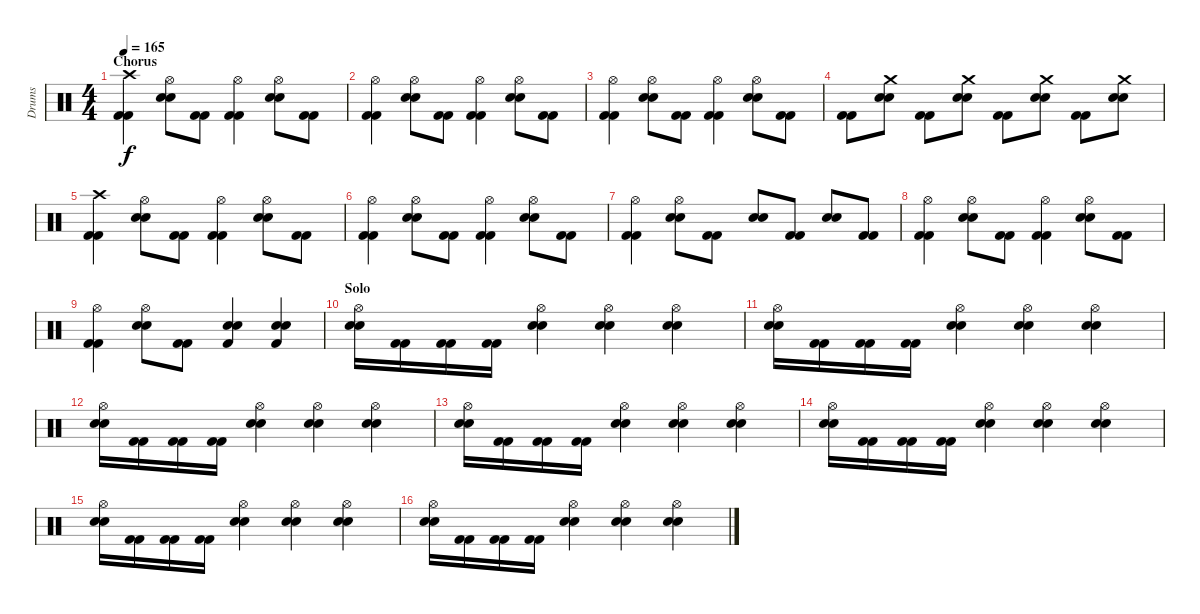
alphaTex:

\track ("Drums" "Drums") {instrument percussion}
\staff {score}
\articulation defaults
\ts (4 4)
\section ("" "Chorus")
\tempo 165
\clef neutral
\ks c
("Crash high (hit)" "Kick (hit) 2" "Kick (hit) 2").4{dy f} ("Hi-Hat (open)" "Snare (hit) 2" "Snare (hit) 2").8 ("Kick (hit) 2" "Kick (hit) 2").8 ("Hi-Hat (open)" "Kick (hit) 2" "Kick (hit) 2").4 ("Hi-Hat (open)" "Snare (hit) 2" "Snare (hit) 2").8 ("Kick (hit) 2" "Kick (hit) 2").8 |
("Hi-Hat (open)" "Kick (hit) 2" "Kick (hit) 2").4 ("Hi-Hat (open)" "Snare (hit) 2" "Snare (hit) 2").8 ("Kick (hit) 2" "Kick (hit) 2").8 ("Hi-Hat (open)" "Kick (hit) 2" "Kick (hit) 2").4 ("Hi-Hat (open)" "Snare (hit) 2" "Snare (hit) 2").8 ("Kick (hit) 2" "Kick (hit) 2").8 |
("Hi-Hat (open)" "Kick (hit) 2" "Kick (hit) 2").4 ("Hi-Hat (open)" "Snare (hit) 2" "Snare (hit) 2").8 ("Kick (hit) 2" "Kick (hit) 2").8 ("Hi-Hat (open)" "Kick (hit) 2" "Kick (hit) 2").4 ("Hi-Hat (open)" "Snare (hit) 2" "Snare (hit) 2").8 ("Kick (hit) 2" "Kick (hit) 2").8 |
("Kick (hit) 2" "Kick (hit) 2").8 ("Crash medium (hit)" "Snare (hit) 2" "Snare (hit) 2").8 ("Kick (hit) 2" "Kick (hit) 2").8 ("Crash medium (hit)" "Snare (hit) 2" "Snare (hit) 2").8 ("Kick (hit) 2" "Kick (hit) 2").8 ("Crash medium (hit)" "Snare (hit) 2" "Snare (hit) 2").8 ("Kick (hit) 2" "Kick (hit) 2").8 ("Crash medium (hit)" "Snare (hit) 2" "Snare (hit) 2").8 |
("Crash high (hit)" "Kick (hit) 2" "Kick (hit) 2").4 ("Hi-Hat (open)" "Snare (hit) 2" "Snare (hit) 2").8 ("Kick (hit) 2" "Kick (hit) 2").8 ("Hi-Hat (open)" "Kick (hit) 2" "Kick (hit) 2").4 ("Hi-Hat (open)" "Snare (hit) 2" "Snare (hit) 2").8 ("Kick (hit) 2" "Kick (hit) 2").8 |
("Hi-Hat (open)" "Kick (hit) 2" "Kick (hit) 2").4 ("Hi-Hat (open)" "Snare (hit) 2" "Snare (hit) 2").8 ("Kick (hit) 2" "Kick (hit) 2").8 ("Hi-Hat (open)" "Kick (hit) 2" "Kick (hit) 2").4 ("Hi-Hat (open)" "Snare (hit) 2" "Snare (hit) 2").8 ("Kick (hit) 2" "Kick (hit) 2").8 |
("Hi-Hat (open)" "Kick (hit) 2" "Kick (hit) 2").4 ("Hi-Hat (open)" "Snare (hit) 2" "Snare (hit) 2").8 ("Kick (hit) 2" "Kick (hit) 2").8 ("Snare (hit) 2" "Snare (hit) 2").8 ("Kick (hit) 2" "Kick (hit) 2").8 ("Snare (hit) 2" "Snare (hit) 2").8 ("Kick (hit) 2" "Kick (hit) 2").8 |
("Hi-Hat (open)" "Kick (hit) 2" "Kick (hit) 2").4 ("Hi-Hat (open)" "Snare (hit) 2" "Snare (hit) 2").8 ("Kick (hit) 2" "Kick (hit) 2").8 ("Hi-Hat (open)" "Kick (hit) 2" "Kick (hit) 2").4 ("Hi-Hat (open)" "Snare (hit) 2" "Snare (hit) 2").8 ("Kick (hit) 2" "Kick (hit) 2").8 |
("Hi-Hat (open)" "Kick (hit) 2" "Kick (hit) 2").4 ("Hi-Hat (open)" "Snare (hit) 2" "Snare (hit) 2").8 ("Kick (hit) 2" "Kick (hit) 2").8 ("Snare (hit) 2" "Snare (hit) 2" "Kick (hit) 2").4 ("Snare (hit) 2" "Snare (hit) 2" "Kick (hit) 2").4 |
\section ("" "Solo")
("Hi-Hat (open)" "Snare (hit) 2" "Snare (hit) 2").16 ("Kick (hit) 2" "Kick (hit) 2").16 ("Kick (hit) 2" "Kick (hit) 2").16 ("Kick (hit) 2" "Kick (hit) 2").16 ("Hi-Hat (open)" "Snare (hit) 2" "Snare (hit) 2").4 ("Hi-Hat (open)" "Snare (hit) 2" "Snare (hit) 2").4 ("Hi-Hat (open)" "Snare (hit) 2" "Snare (hit) 2").4 |
("Hi-Hat (open)" "Snare (hit) 2" "Snare (hit) 2").16 ("Kick (hit) 2" "Kick (hit) 2").16 ("Kick (hit) 2" "Kick (hit) 2").16 ("Kick (hit) 2" "Kick (hit) 2").16 ("Hi-Hat (open)" "Snare (hit) 2" "Snare (hit) 2").4 ("Hi-Hat (open)" "Snare (hit) 2" "Snare (hit) 2").4 ("Hi-Hat (open)" "Snare (hit) 2" "Snare (hit) 2").4 |
("Hi-Hat (open)" "Snare (hit) 2" "Snare (hit) 2").16 ("Kick (hit) 2" "Kick (hit) 2").16 ("Kick (hit) 2" "Kick (hit) 2").16 ("Kick (hit) 2" "Kick (hit) 2").16 ("Hi-Hat (open)" "Snare (hit) 2" "Snare (hit) 2").4 ("Hi-Hat (open)" "Snare (hit) 2" "Snare (hit) 2").4 ("Hi-Hat (open)" "Snare (hit) 2" "Snare (hit) 2").4 |
("Hi-Hat (open)" "Snare (hit) 2" "Snare (hit) 2").16 ("Kick (hit) 2" "Kick (hit) 2").16 ("Kick (hit) 2" "Kick (hit) 2").16 ("Kick (hit) 2" "Kick (hit) 2").16 ("Hi-Hat (open)" "Snare (hit) 2" "Snare (hit) 2").4 ("Hi-Hat (open)" "Snare (hit) 2" "Snare (hit) 2").4 ("Hi-Hat (open)" "Snare (hit) 2" "Snare (hit) 2").4 |
("Hi-Hat (open)" "Snare (hit) 2" "Snare (hit) 2").16 ("Kick (hit) 2" "Kick (hit) 2").16 ("Kick (hit) 2" "Kick (hit) 2").16 ("Kick (hit) 2" "Kick (hit) 2").16 ("Hi-Hat (open)" "Snare (hit) 2" "Snare (hit) 2").4 ("Hi-Hat (open)" "Snare (hit) 2" "Snare (hit) 2").4 ("Hi-Hat (open)" "Snare (hit) 2" "Snare (hit) 2").4 |
("Hi-Hat (open)" "Snare (hit) 2" "Snare (hit) 2").16 ("Kick (hit) 2" "Kick (hit) 2").16 ("Kick (hit) 2" "Kick (hit) 2").16 ("Kick (hit) 2" "Kick (hit) 2").16 ("Hi-Hat (open)" "Snare (hit) 2" "Snare (hit) 2").4 ("Hi-Hat (open)" "Snare (hit) 2" "Snare (hit) 2").4 ("Hi-Hat (open)" "Snare (hit) 2" "Snare (hit) 2").4 |
("Hi-Hat (open)" "Snare (hit) 2" "Snare (hit) 2").16 ("Kick (hit) 2" "Kick (hit) 2").16 ("Kick (hit) 2" "Kick (hit) 2").16 ("Kick (hit) 2" "Kick (hit) 2").16 ("Hi-Hat (open)" "Snare (hit) 2" "Snare (hit) 2").4 ("Hi-Hat (open)" "Snare (hit) 2" "Snare (hit) 2").4 ("Hi-Hat (open)" "Snare (hit) 2" "Snare (hit) 2").4
